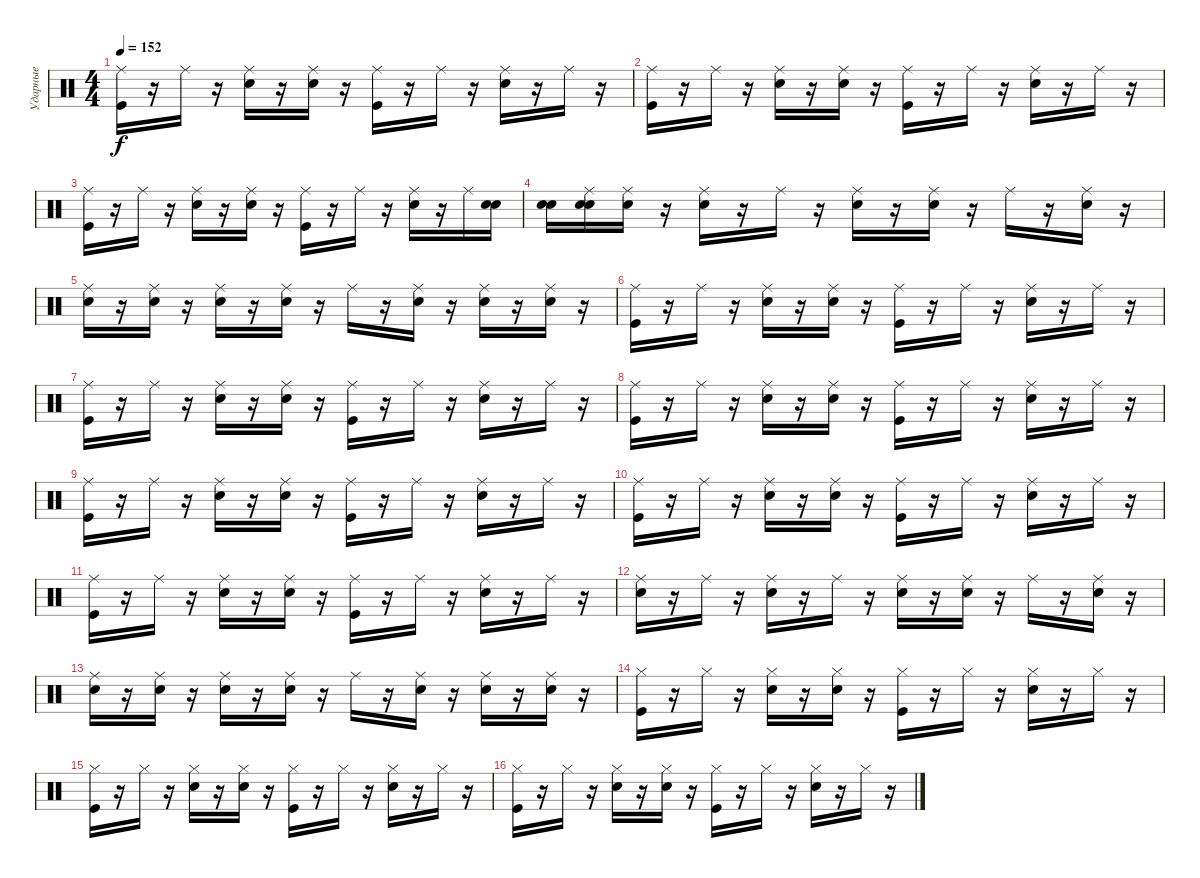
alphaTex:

\track ("Ударные" "Ударные") {instrument percussion}
\staff {score}
\articulation defaults
\ts (4 4)
\tempo 152
\clef neutral
\ks c
("Kick (hit)" "Ride (middle)").16{dy f} r.16 "Ride (middle)".16 r.16 ("Electric Snare (hit)" "Ride (middle)").16 r.16 ("Electric Snare (hit)" "Ride (middle)").16 r.16 ("Kick (hit)" "Ride (middle)").16 r.16 "Ride (middle)".16 r.16 ("Electric Snare (hit)" "Ride (middle)").16 r.16 "Ride (middle)".16 r.16 |
("Kick (hit)" "Ride (middle)").16 r.16 "Ride (middle)".16 r.16 ("Electric Snare (hit)" "Ride (middle)").16 r.16 ("Electric Snare (hit)" "Ride (middle)").16 r.16 ("Kick (hit)" "Ride (middle)").16 r.16 "Ride (middle)".16 r.16 ("Electric Snare (hit)" "Ride (middle)").16 r.16 "Ride (middle)".16 r.16 |
("Kick (hit)" "Ride (middle)").16 r.16 "Ride (middle)".16 r.16 ("Electric Snare (hit)" "Ride (middle)").16 r.16 ("Electric Snare (hit)" "Ride (middle)").16 r.16 ("Ride (middle)" "Kick (hit)").16 r.16 "Ride (middle)".16 r.16 ("Electric Snare (hit)" "Ride (middle)").16 r.16 "Ride (middle)".16 ("Snare (hit)" "Electric Snare (hit)").16 |
("Snare (hit)" "Electric Snare (hit)").16 ("Snare (hit)" "Electric Snare (hit)" "Ride (middle)").16 ("Snare (hit)" "Ride (middle)").16 r.16 ("Electric Snare (hit)" "Ride (middle)").16 r.16 "Ride (middle)".16 r.16 ("Electric Snare (hit)" "Ride (middle)").16 r.16 ("Electric Snare (hit)" "Ride (middle)").16 r.16 "Ride (middle)".16 r.16 ("Ride (middle)" "Electric Snare (hit)").16 r.16 |
("Electric Snare (hit)" "Ride (middle)").16 r.16 ("Electric Snare (hit)" "Ride (middle)").16 r.16 ("Electric Snare (hit)" "Ride (middle)").16 r.16 ("Electric Snare (hit)" "Ride (middle)").16 r.16 "Ride (middle)".16 r.16 ("Electric Snare (hit)" "Ride (middle)").16 r.16 ("Electric Snare (hit)" "Ride (middle)").16 r.16 ("Electric Snare (hit)" "Ride (middle)").16 r.16 |
("Kick (hit)" "Ride (middle)").16 r.16 "Ride (middle)".16 r.16 ("Ride (middle)" "Electric Snare (hit)").16 r.16 ("Electric Snare (hit)" "Ride (middle)").16 r.16 ("Kick (hit)" "Ride (middle)").16 r.16 "Ride (middle)".16 r.16 ("Electric Snare (hit)" "Ride (middle)").16 r.16 "Ride (middle)".16 r.16 |
("Kick (hit)" "Ride (middle)").16 r.16 "Ride (middle)".16 r.16 ("Electric Snare (hit)" "Ride (middle)").16 r.16 ("Electric Snare (hit)" "Ride (middle)").16 r.16 ("Kick (hit)" "Ride (middle)").16 r.16 "Ride (middle)".16 r.16 ("Electric Snare (hit)" "Ride (middle)").16 r.16 "Ride (middle)".16 r.16 |
("Kick (hit)" "Ride (middle)").16 r.16 "Ride (middle)".16 r.16 ("Electric Snare (hit)" "Ride (middle)").16 r.16 ("Electric Snare (hit)" "Ride (middle)").16 r.16 ("Kick (hit)" "Ride (middle)").16 r.16 "Ride (middle)".16 r.16 ("Electric Snare (hit)" "Ride (middle)").16 r.16 "Ride (middle)".16 r.16 |
("Ride (middle)" "Kick (hit)").16 r.16 "Ride (middle)".16 r.16 ("Electric Snare (hit)" "Ride (middle)").16 r.16 ("Electric Snare (hit)" "Ride (middle)").16 r.16 ("Kick (hit)" "Ride (middle)").16 r.16 "Ride (middle)".16 r.16 ("Electric Snare (hit)" "Ride (middle)").16 r.16 "Ride (middle)".16 r.16 |
("Kick (hit)" "Ride (middle)").16 r.16 "Ride (middle)".16 r.16 ("Electric Snare (hit)" "Ride (middle)").16 r.16 ("Ride (middle)" "Electric Snare (hit)").16 r.16 ("Kick (hit)" "Ride (middle)").16 r.16 "Ride (middle)".16 r.16 ("Electric Snare (hit)" "Ride (middle)").16 r.16 "Ride (middle)".16 r.16 |
("Kick (hit)" "Ride (middle)").16 r.16 "Ride (middle)".16 r.16 ("Electric Snare (hit)" "Ride (middle)").16 r.16 ("Electric Snare (hit)" "Ride (middle)").16 r.16 ("Kick (hit)" "Ride (middle)").16 r.16 "Ride (middle)".16 r.16 ("Ride (middle)" "Electric Snare (hit)").16 r.16 "Ride (middle)".16 r.16 |
("Electric Snare (hit)" "Ride (middle)").16 r.16 "Ride (middle)".16 r.16 ("Electric Snare (hit)" "Ride (middle)").16 r.16 "Ride (middle)".16 r.16 ("Electric Snare (hit)" "Ride (middle)").16 r.16 ("Electric Snare (hit)" "Ride (middle)").16 r.16 "Ride (middle)".16 r.16 ("Electric Snare (hit)" "Ride (middle)").16 r.16 |
("Electric Snare (hit)" "Ride (middle)").16 r.16 ("Ride (middle)" "Electric Snare (hit)").16 r.16 ("Electric Snare (hit)" "Ride (middle)").16 r.16 ("Electric Snare (hit)" "Ride (middle)").16 r.16 "Ride (middle)".16 r.16 ("Electric Snare (hit)" "Ride (middle)").16 r.16 ("Electric Snare (hit)" "Ride (middle)").16 r.16 ("Electric Snare (hit)" "Ride (middle)").16 r.16 |
("Kick (hit)" "Hi-Hat (closed)").16 r.16 "Hi-Hat (closed)".16 r.16 ("Electric Snare (hit)" "Hi-Hat (closed)").16 r.16 ("Electric Snare (hit)" "Hi-Hat (closed)").16 r.16 ("Hi-Hat (closed)" "Kick (hit)").16 r.16 "Hi-Hat (closed)".16 r.16 ("Electric Snare (hit)" "Hi-Hat (closed)").16 r.16 "Hi-Hat (closed)".16 r.16 |
("Kick (hit)" "Hi-Hat (closed)").16 r.16 "Hi-Hat (closed)".16 r.16 ("Electric Snare (hit)" "Hi-Hat (closed)").16 r.16 ("Electric Snare (hit)" "Hi-Hat (closed)").16 r.16 ("Kick (hit)" "Hi-Hat (closed)").16 r.16 "Hi-Hat (closed)".16 r.16 ("Electric Snare (hit)" "Hi-Hat (closed)").16 r.16 "Hi-Hat (closed)".16 r.16 |
("Kick (hit)" "Hi-Hat (closed)").16 r.16 "Hi-Hat (closed)".16 r.16 ("Electric Snare (hit)" "Hi-Hat (closed)").16 r.16 ("Electric Snare (hit)" "Hi-Hat (closed)").16 r.16 ("Kick (hit)" "Hi-Hat (closed)").16 r.16 "Hi-Hat (closed)".16 r.16 ("Electric Snare (hit)" "Hi-Hat (closed)").16 r.16 "Hi-Hat (closed)".16 r.16
